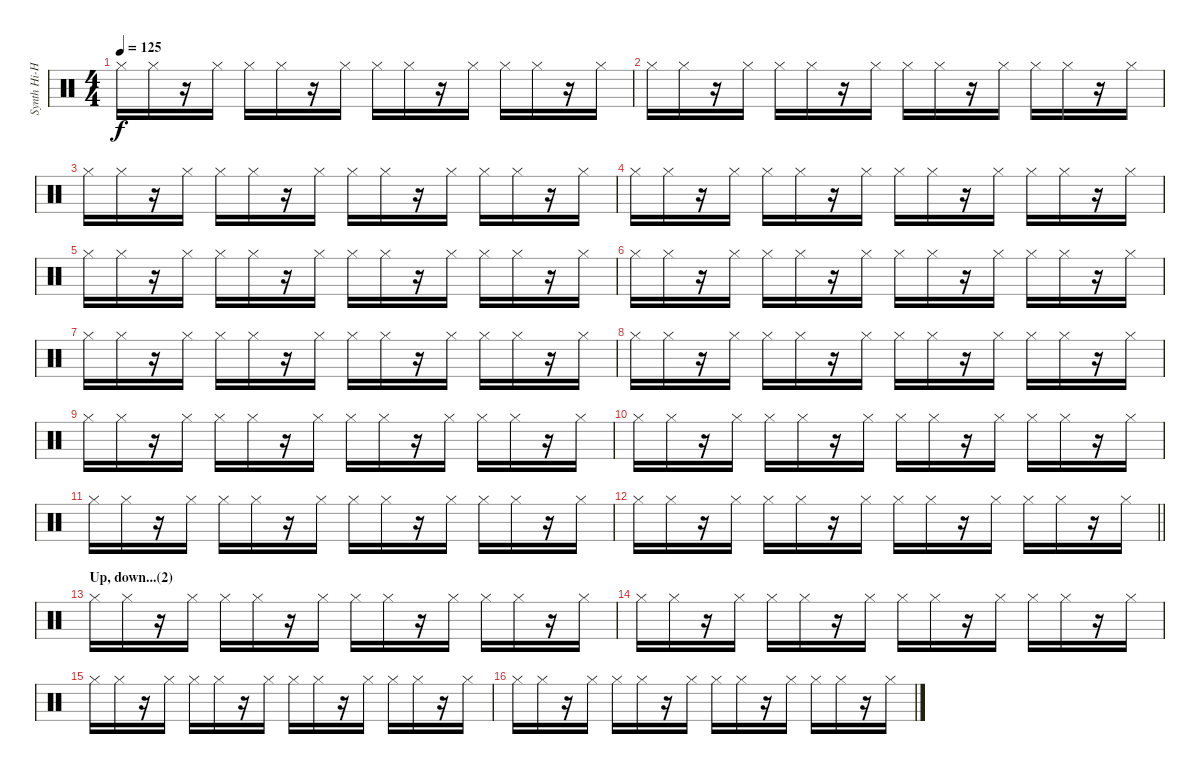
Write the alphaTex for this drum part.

\track ("Synth Hi-Hat (Gillian)" "Synth Hi-H") {instrument percussion}
\staff {score}
\articulation defaults
\ts (4 4)
\tempo 125
\clef neutral
\ks c "Hi-Hat (closed)".16{dy f} "Hi-Hat (closed)".16
r.16 "Hi-Hat (closed)".16 "Hi-Hat (closed)".16 "Hi-Hat (closed)".16 r.16 "Hi-Hat (closed)".16 "Hi-Hat (closed)".16 "Hi-Hat (closed)".16 r.16 "Hi-Hat (closed)".16 "Hi-Hat (closed)".16 "Hi-Hat (closed)".16 r.16 "Hi-Hat (closed)".16 |
"Hi-Hat (closed)".16 "Hi-Hat (closed)".16 r.16 "Hi-Hat (closed)".16 "Hi-Hat (closed)".16 "Hi-Hat (closed)".16 r.16 "Hi-Hat (closed)".16 "Hi-Hat (closed)".16 "Hi-Hat (closed)".16 r.16 "Hi-Hat (closed)".16 "Hi-Hat (closed)".16 "Hi-Hat (closed)".16 r.16 "Hi-Hat (closed)".16 |
"Hi-Hat (closed)".16 "Hi-Hat (closed)".16 r.16 "Hi-Hat (closed)".16 "Hi-Hat (closed)".16 "Hi-Hat (closed)".16 r.16 "Hi-Hat (closed)".16 "Hi-Hat (closed)".16 "Hi-Hat (closed)".16 r.16 "Hi-Hat (closed)".16 "Hi-Hat (closed)".16 "Hi-Hat (closed)".16 r.16 "Hi-Hat (closed)".16 |
"Hi-Hat (closed)".16 "Hi-Hat (closed)".16 r.16 "Hi-Hat (closed)".16 "Hi-Hat (closed)".16 "Hi-Hat (closed)".16 r.16 "Hi-Hat (closed)".16 "Hi-Hat (closed)".16 "Hi-Hat (closed)".16 r.16 "Hi-Hat (closed)".16 "Hi-Hat (closed)".16 "Hi-Hat (closed)".16 r.16 "Hi-Hat (closed)".16 |
"Hi-Hat (closed)".16 "Hi-Hat (closed)".16 r.16 "Hi-Hat (closed)".16 "Hi-Hat (closed)".16 "Hi-Hat (closed)".16 r.16 "Hi-Hat (closed)".16 "Hi-Hat (closed)".16 "Hi-Hat (closed)".16 r.16 "Hi-Hat (closed)".16 "Hi-Hat (closed)".16 "Hi-Hat (closed)".16 r.16 "Hi-Hat (closed)".16 |
"Hi-Hat (closed)".16 "Hi-Hat (closed)".16 r.16 "Hi-Hat (closed)".16 "Hi-Hat (closed)".16 "Hi-Hat (closed)".16 r.16 "Hi-Hat (closed)".16 "Hi-Hat (closed)".16 "Hi-Hat (closed)".16 r.16 "Hi-Hat (closed)".16 "Hi-Hat (closed)".16 "Hi-Hat (closed)".16 r.16 "Hi-Hat (closed)".16 |
"Hi-Hat (closed)".16 "Hi-Hat (closed)".16 r.16 "Hi-Hat (closed)".16 "Hi-Hat (closed)".16 "Hi-Hat (closed)".16 r.16 "Hi-Hat (closed)".16 "Hi-Hat (closed)".16 "Hi-Hat (closed)".16 r.16 "Hi-Hat (closed)".16 "Hi-Hat (closed)".16 "Hi-Hat (closed)".16 r.16 "Hi-Hat (closed)".16 |
"Hi-Hat (closed)".16 "Hi-Hat (closed)".16 r.16 "Hi-Hat (closed)".16 "Hi-Hat (closed)".16 "Hi-Hat (closed)".16 r.16 "Hi-Hat (closed)".16 "Hi-Hat (closed)".16 "Hi-Hat (closed)".16 r.16 "Hi-Hat (closed)".16 "Hi-Hat (closed)".16 "Hi-Hat (closed)".16 r.16 "Hi-Hat (closed)".16 |
"Hi-Hat (closed)".16 "Hi-Hat (closed)".16 r.16 "Hi-Hat (closed)".16 "Hi-Hat (closed)".16 "Hi-Hat (closed)".16 r.16 "Hi-Hat (closed)".16 "Hi-Hat (closed)".16 "Hi-Hat (closed)".16 r.16 "Hi-Hat (closed)".16 "Hi-Hat (closed)".16 "Hi-Hat (closed)".16 r.16 "Hi-Hat (closed)".16 |
"Hi-Hat (closed)".16 "Hi-Hat (closed)".16 r.16 "Hi-Hat (closed)".16 "Hi-Hat (closed)".16 "Hi-Hat (closed)".16 r.16 "Hi-Hat (closed)".16 "Hi-Hat (closed)".16 "Hi-Hat (closed)".16 r.16 "Hi-Hat (closed)".16 "Hi-Hat (closed)".16 "Hi-Hat (closed)".16 r.16 "Hi-Hat (closed)".16 |
"Hi-Hat (closed)".16 "Hi-Hat (closed)".16 r.16 "Hi-Hat (closed)".16 "Hi-Hat (closed)".16 "Hi-Hat (closed)".16 r.16 "Hi-Hat (closed)".16 "Hi-Hat (closed)".16 "Hi-Hat (closed)".16 r.16 "Hi-Hat (closed)".16 "Hi-Hat (closed)".16 "Hi-Hat (closed)".16 r.16 "Hi-Hat (closed)".16 |
\barLineRight lightlight "Hi-Hat (closed)".16 "Hi-Hat (closed)".16
r.16 "Hi-Hat (closed)".16 "Hi-Hat (closed)".16 "Hi-Hat (closed)".16 r.16 "Hi-Hat (closed)".16 "Hi-Hat (closed)".16 "Hi-Hat (closed)".16 r.16 "Hi-Hat (closed)".16 "Hi-Hat (closed)".16 "Hi-Hat (closed)".16 r.16 "Hi-Hat (closed)".16 |
\section ("" "Up, down...(2)")
"Hi-Hat (closed)".16 "Hi-Hat (closed)".16 r.16 "Hi-Hat (closed)".16 "Hi-Hat (closed)".16 "Hi-Hat (closed)".16 r.16 "Hi-Hat (closed)".16 "Hi-Hat (closed)".16 "Hi-Hat (closed)".16 r.16 "Hi-Hat (closed)".16 "Hi-Hat (closed)".16 "Hi-Hat (closed)".16 r.16 "Hi-Hat (closed)".16 |
"Hi-Hat (closed)".16 "Hi-Hat (closed)".16 r.16 "Hi-Hat (closed)".16 "Hi-Hat (closed)".16 "Hi-Hat (closed)".16 r.16 "Hi-Hat (closed)".16 "Hi-Hat (closed)".16 "Hi-Hat (closed)".16 r.16 "Hi-Hat (closed)".16 "Hi-Hat (closed)".16 "Hi-Hat (closed)".16 r.16 "Hi-Hat (closed)".16 |
"Hi-Hat (closed)".16 "Hi-Hat (closed)".16 r.16 "Hi-Hat (closed)".16 "Hi-Hat (closed)".16 "Hi-Hat (closed)".16 r.16 "Hi-Hat (closed)".16 "Hi-Hat (closed)".16 "Hi-Hat (closed)".16 r.16 "Hi-Hat (closed)".16 "Hi-Hat (closed)".16 "Hi-Hat (closed)".16 r.16 "Hi-Hat (closed)".16 |
"Hi-Hat (closed)".16 "Hi-Hat (closed)".16 r.16 "Hi-Hat (closed)".16 "Hi-Hat (closed)".16 "Hi-Hat (closed)".16 r.16 "Hi-Hat (closed)".16 "Hi-Hat (closed)".16 "Hi-Hat (closed)".16 r.16 "Hi-Hat (closed)".16 "Hi-Hat (closed)".16 "Hi-Hat (closed)".16 r.16 "Hi-Hat (closed)".16
